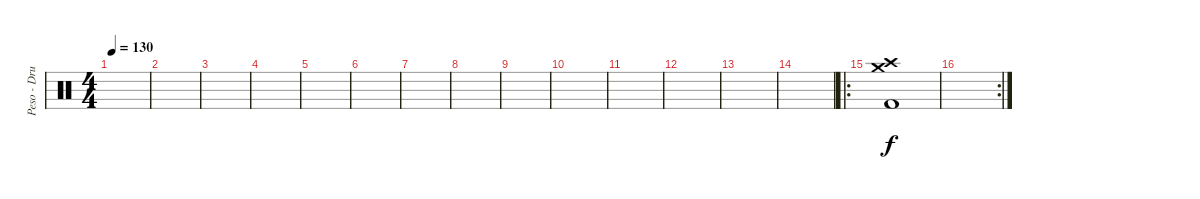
\track ("Peso - Drums" "Peso - Dru") {instrument percussion}
\staff {score}
\articulation defaults
\ts (4 4)
\tempo 130
\clef neutral
\ks c
|
|
|
|
|
|
|
|
|
|
|
|
|
|
\ro
("Crash medium (hit)" "Crash high (hit)" "Kick (hit) 2").1 |
\rc 2
